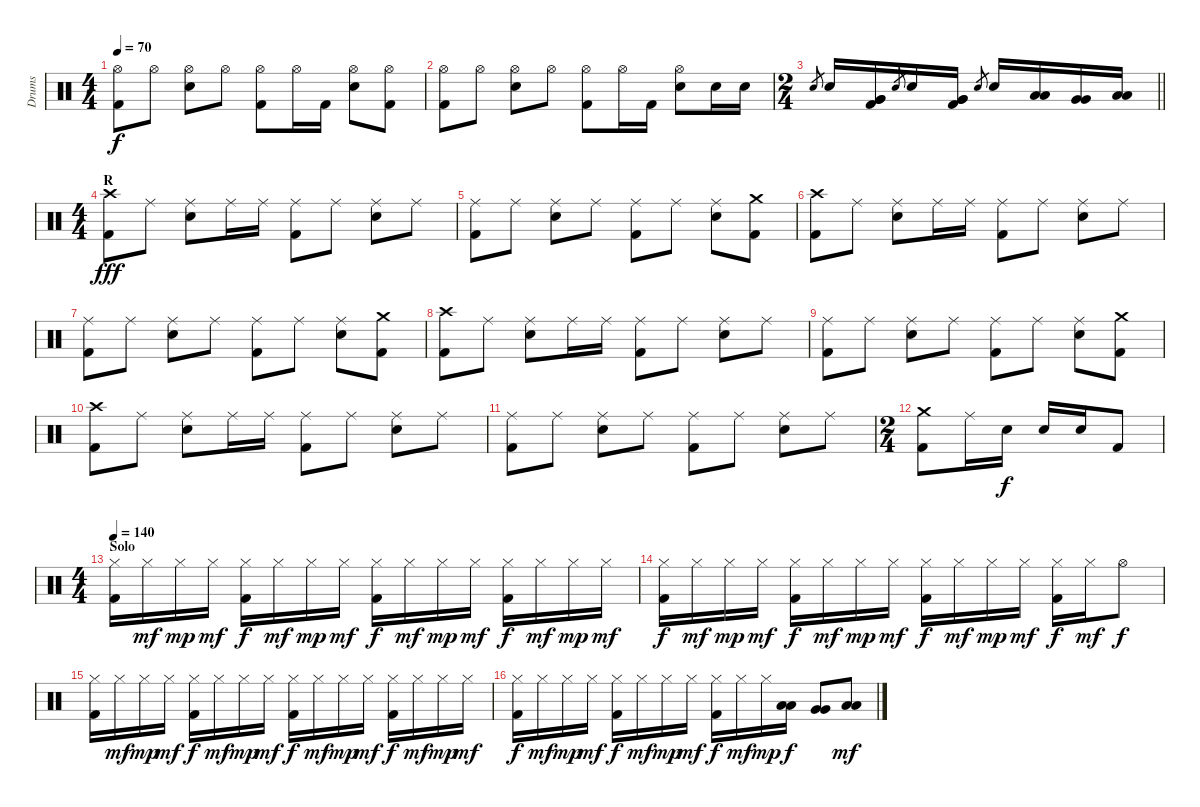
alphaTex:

\track ("Drums" "Drums") {instrument percussion}
\staff {score}
\articulation defaults
\ts (4 4)
\tempo 70
\clef neutral
\ks c
("Kick (hit) 2" "Hi-Hat (open)").8{dy f} "Hi-Hat (open)".8 ("Electric Snare (hit)" "Hi-Hat (open)").8 "Hi-Hat (open)".8 ("Kick (hit) 2" "Hi-Hat (open)").8 "Hi-Hat (open)".16 "Kick (hit) 2".16 ("Electric Snare (hit)" "Hi-Hat (open)").8 ("Kick (hit) 2" "Hi-Hat (open)").8 |
("Kick (hit) 2" "Hi-Hat (open)").8 "Hi-Hat (open)".8 ("Electric Snare (hit)" "Hi-Hat (open)").8 "Hi-Hat (open)".8 ("Kick (hit) 2" "Hi-Hat (open)").8 "Hi-Hat (open)".16 "Kick (hit) 2".16 ("Electric Snare (hit)" "Hi-Hat (open)").8 "Electric Snare (hit)".16 "Electric Snare (hit)".16 |
\ts (2 4)
\barLineRight lightlight "Electric Snare (hit)".8{gr} "Electric Snare (hit)".16
("Kick (hit) 2" "Very Low Tom (hit)" "Very Low Tom (hit)").16 "Electric Snare (hit)".8{gr} "Electric Snare (hit)".16 ("Kick (hit) 2" "Very Low Tom (hit)" "Very Low Tom (hit)").16 "Electric Snare (hit)".8{gr} "Electric Snare (hit)".16 ("Low Tom (hit)" "Low Tom (hit)").16 ("Very Low Tom (hit)" "Very Low Tom (hit)").16 ("Low Floor Tom (hit)" "Low Floor Tom (hit)").16 |
\ts (4 4)
\section ("" "R")
("Kick (hit) 2" "Crash high (hit)").8{dy fff} "Ride (middle)".8 ("Electric Snare (hit)" "Ride (middle)").8 "Ride (middle)".16 "Ride (middle)".16 ("Kick (hit) 2" "Ride (middle)").8 "Ride (middle)".8 ("Electric Snare (hit)" "Ride (middle)").8 "Ride (middle)".8 |
("Kick (hit) 2" "Ride (middle)").8 "Ride (middle)".8 ("Electric Snare (hit)" "Ride (middle)").8 "Ride (middle)".8 ("Kick (hit) 2" "Ride (middle)").8 "Ride (middle)".8 ("Electric Snare (hit)" "Ride (middle)").8 ("Kick (hit) 2" "Crash medium (hit)").8 |
("Kick (hit) 2" "Crash high (hit)").8 "Ride (middle)".8 ("Electric Snare (hit)" "Ride (middle)").8 "Ride (middle)".16 "Ride (middle)".16 ("Kick (hit) 2" "Ride (middle)").8 "Ride (middle)".8 ("Electric Snare (hit)" "Ride (middle)").8 "Ride (middle)".8 |
("Kick (hit) 2" "Ride (middle)").8 "Ride (middle)".8 ("Electric Snare (hit)" "Ride (middle)").8 "Ride (middle)".8 ("Kick (hit) 2" "Ride (middle)").8 "Ride (middle)".8 ("Electric Snare (hit)" "Ride (middle)").8 ("Kick (hit) 2" "Crash medium (hit)").8 |
("Kick (hit) 2" "Crash high (hit)").8 "Ride (middle)".8 ("Electric Snare (hit)" "Ride (middle)").8 "Ride (middle)".16 "Ride (middle)".16 ("Kick (hit) 2" "Ride (middle)").8 "Ride (middle)".8 ("Electric Snare (hit)" "Ride (middle)").8 "Ride (middle)".8 |
("Kick (hit) 2" "Ride (middle)").8 "Ride (middle)".8 ("Electric Snare (hit)" "Ride (middle)").8 "Ride (middle)".8 ("Kick (hit) 2" "Ride (middle)").8 "Ride (middle)".8 ("Electric Snare (hit)" "Ride (middle)").8 ("Kick (hit) 2" "Crash medium (hit)").8 |
("Kick (hit) 2" "Crash high (hit)").8 "Ride (middle)".8 ("Electric Snare (hit)" "Ride (middle)").8 "Ride (middle)".16 "Ride (middle)".16 ("Kick (hit) 2" "Ride (middle)").8 "Ride (middle)".8 ("Electric Snare (hit)" "Ride (middle)").8 "Ride (middle)".8 |
("Kick (hit) 2" "Ride (middle)").8 "Ride (middle)".8 ("Electric Snare (hit)" "Ride (middle)").8 "Ride (middle)".8 ("Kick (hit) 2" "Ride (middle)").8 "Ride (middle)".8 ("Electric Snare (hit)" "Ride (middle)").8 "Ride (middle)".8 |
\ts (2 4)
("Kick (hit) 2" "Crash medium (hit)").8 "Ride (middle)".16 "Electric Snare (hit)".16{dy f} "Electric Snare (hit)".16 "Electric Snare (hit)".16 "Kick (hit) 2".8 |
\ts (4 4)
\section ("" "Solo")
\tempo 140
("Kick (hit) 2" "Hi-Hat (closed)").16 "Hi-Hat (closed)".16{dy mf} "Hi-Hat (closed)".16{dy mp} "Hi-Hat (closed)".16{dy mf} ("Kick (hit) 2" "Hi-Hat (closed)").16{dy f} "Hi-Hat (closed)".16{dy mf} "Hi-Hat (closed)".16{dy mp} "Hi-Hat (closed)".16{dy mf} ("Kick (hit) 2" "Hi-Hat (closed)").16{dy f} "Hi-Hat (closed)".16{dy mf} "Hi-Hat (closed)".16{dy mp} "Hi-Hat (closed)".16{dy mf} ("Kick (hit) 2" "Hi-Hat (closed)").16{dy f} "Hi-Hat (closed)".16{dy mf} "Hi-Hat (closed)".16{dy mp} "Hi-Hat (closed)".16{dy mf} |
("Kick (hit) 2" "Hi-Hat (closed)").16{dy f} "Hi-Hat (closed)".16{dy mf} "Hi-Hat (closed)".16{dy mp} "Hi-Hat (closed)".16{dy mf} ("Kick (hit) 2" "Hi-Hat (closed)").16{dy f} "Hi-Hat (closed)".16{dy mf} "Hi-Hat (closed)".16{dy mp} "Hi-Hat (closed)".16{dy mf} ("Kick (hit) 2" "Hi-Hat (closed)").16{dy f} "Hi-Hat (closed)".16{dy mf} "Hi-Hat (closed)".16{dy mp} "Hi-Hat (closed)".16{dy mf} ("Kick (hit) 2" "Hi-Hat (closed)").16{dy f} "Hi-Hat (closed)".16{dy mf} "Hi-Hat (open)".8{dy f} |
("Kick (hit) 2" "Hi-Hat (closed)").16 "Hi-Hat (closed)".16{dy mf} "Hi-Hat (closed)".16{dy mp} "Hi-Hat (closed)".16{dy mf} ("Kick (hit) 2" "Hi-Hat (closed)").16{dy f} "Hi-Hat (closed)".16{dy mf} "Hi-Hat (closed)".16{dy mp} "Hi-Hat (closed)".16{dy mf} ("Kick (hit) 2" "Hi-Hat (closed)").16{dy f} "Hi-Hat (closed)".16{dy mf} "Hi-Hat (closed)".16{dy mp} "Hi-Hat (closed)".16{dy mf} ("Kick (hit) 2" "Hi-Hat (closed)").16{dy f} "Hi-Hat (closed)".16{dy mf} "Hi-Hat (closed)".16{dy mp} "Hi-Hat (closed)".16{dy mf} |
("Kick (hit) 2" "Hi-Hat (closed)").16{dy f} "Hi-Hat (closed)".16{dy mf} "Hi-Hat (closed)".16{dy mp} "Hi-Hat (closed)".16{dy mf} ("Kick (hit) 2" "Hi-Hat (closed)").16{dy f} "Hi-Hat (closed)".16{dy mf} "Hi-Hat (closed)".16{dy mp} "Hi-Hat (closed)".16{dy mf} ("Kick (hit) 2" "Hi-Hat (closed)").16{dy f} "Hi-Hat (closed)".16{dy mf} "Hi-Hat (closed)".16{dy mp} ("Low Tom (hit)" "Low Tom (hit)").16{dy f} ("Very Low Tom (hit)" "Very Low Tom (hit)").8 ("Low Floor Tom (hit)" "Low Floor Tom (hit)").8{dy mf}
